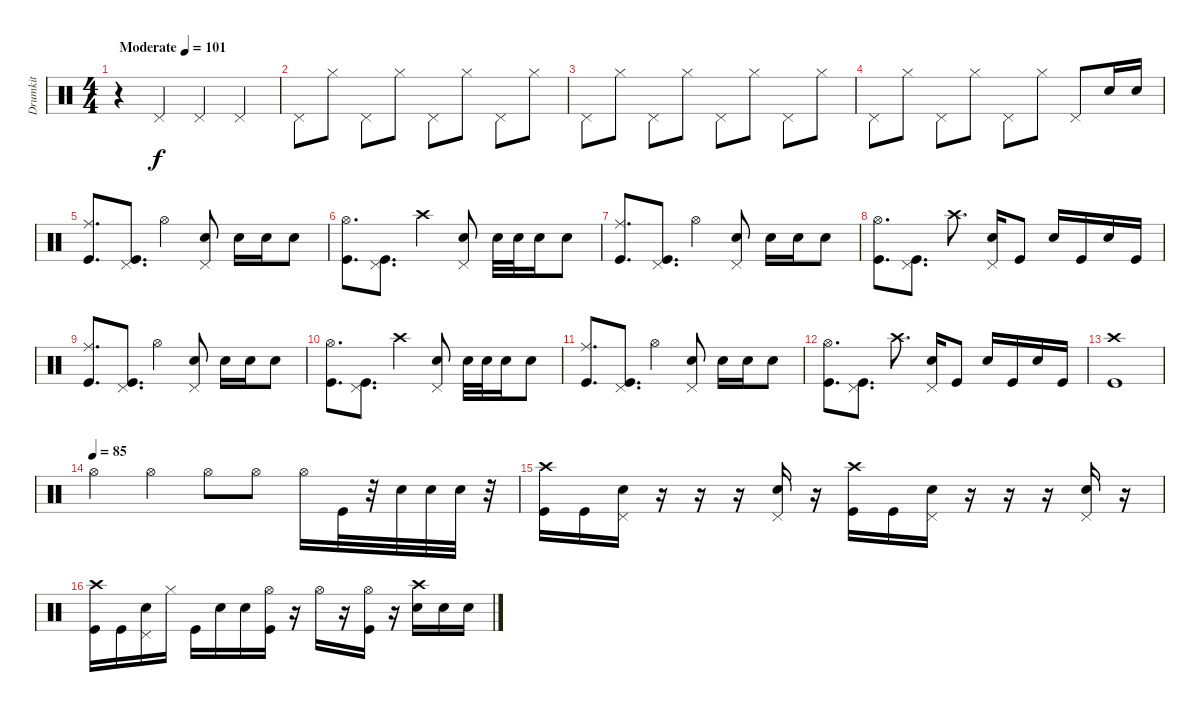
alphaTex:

\track ("Drumkit" "Drumkit") {instrument percussion}
\staff {score}
\articulation defaults
\ts (4 4)
\tempo (101 "Moderate")
\clef neutral
\ks c
r.4{dy f} "Pedal Hi-Hat (hit)".4 "Pedal Hi-Hat (hit)".4 "Pedal Hi-Hat (hit)".4 |
"Pedal Hi-Hat (hit)".8 "Hi-Hat (closed)".8 "Pedal Hi-Hat (hit)".8 "Hi-Hat (closed)".8 "Pedal Hi-Hat (hit)".8 "Hi-Hat (closed)".8 "Pedal Hi-Hat (hit)".8 "Hi-Hat (closed)".8 |
"Pedal Hi-Hat (hit)".8 "Hi-Hat (closed)".8 "Pedal Hi-Hat (hit)".8 "Hi-Hat (closed)".8 "Pedal Hi-Hat (hit)".8 "Hi-Hat (closed)".8 "Pedal Hi-Hat (hit)".8 "Hi-Hat (closed)".8 |
"Pedal Hi-Hat (hit)".8 "Hi-Hat (closed)".8 "Pedal Hi-Hat (hit)".8 "Hi-Hat (closed)".8 "Pedal Hi-Hat (hit)".8 "Hi-Hat (closed)".8 "Pedal Hi-Hat (hit)".8 "Snare (hit) 2".16 "Snare (hit) 2".16 |
("Kick (hit)" "Ride (middle)").8{d} ("Kick (hit)" "Pedal Hi-Hat (hit)").8{d} "Hi-Hat (open)".4 ("Snare (hit) 2" "Pedal Hi-Hat (hit)").8 "Snare (hit) 2".16 "Snare (hit) 2".16 "Snare (hit) 2".8 |
("Kick (hit)" "Hi-Hat (open)").8{d} ("Kick (hit)" "Pedal Hi-Hat (hit)").8{d} "Crash high (hit)".4 ("Snare (hit) 2" "Pedal Hi-Hat (hit)").8 "Snare (hit) 2".32 "Snare (hit) 2".32 "Snare (hit) 2".16 "Snare (hit) 2".8 |
("Kick (hit)" "Ride (middle)").8{d} ("Kick (hit)" "Pedal Hi-Hat (hit)").8{d} "Hi-Hat (open)".4 ("Snare (hit) 2" "Pedal Hi-Hat (hit)").8 "Snare (hit) 2".16 "Snare (hit) 2".16 "Snare (hit) 2".8 |
("Kick (hit)" "Hi-Hat (open)").8{d} ("Kick (hit)" "Pedal Hi-Hat (hit)").8{d} "Crash high (hit)".8{d} ("Snare (hit) 2" "Pedal Hi-Hat (hit)").16 "Kick (hit)".8 "Snare (hit) 2".16 "Kick (hit)".16 "Snare (hit) 2".16 "Kick (hit)".16 |
("Kick (hit)" "Ride (middle)").8{d} ("Kick (hit)" "Pedal Hi-Hat (hit)").8{d} "Hi-Hat (open)".4 ("Snare (hit) 2" "Pedal Hi-Hat (hit)").8 "Snare (hit) 2".16 "Snare (hit) 2".16 "Snare (hit) 2".8 |
("Kick (hit)" "Hi-Hat (open)").8{d} ("Kick (hit)" "Pedal Hi-Hat (hit)").8{d} "Crash high (hit)".4 ("Snare (hit) 2" "Pedal Hi-Hat (hit)").8 "Snare (hit) 2".32 "Snare (hit) 2".32 "Snare (hit) 2".16 "Snare (hit) 2".8 |
("Kick (hit)" "Ride (middle)").8{d} ("Kick (hit)" "Pedal Hi-Hat (hit)").8{d} "Hi-Hat (open)".4 ("Snare (hit) 2" "Pedal Hi-Hat (hit)").8 "Snare (hit) 2".16 "Snare (hit) 2".16 "Snare (hit) 2".8 |
("Kick (hit)" "Hi-Hat (open)").8{d} ("Kick (hit)" "Pedal Hi-Hat (hit)").8{d} "Crash high (hit)".8{d} ("Snare (hit) 2" "Pedal Hi-Hat (hit)").16 "Kick (hit)".8 "Snare (hit) 2".16 "Kick (hit)".16 "Snare (hit) 2".16 "Kick (hit)".16 |
("Kick (hit)" "Crash high (hit)").1 |
\tempo (85)
"Hi-Hat (open)".4 "Hi-Hat (open)".4 "Hi-Hat (open)".8 "Hi-Hat (open)".8 "Hi-Hat (open)".16 "Kick (hit)".32 r.32 "Snare (hit) 2".32 "Snare (hit) 2".32 "Snare (hit) 2".32 r.32 |
("Kick (hit)" "Crash high (hit)").16 "Kick (hit)".16 ("Snare (hit) 2" "Pedal Hi-Hat (hit)").16 r.16 r.16 r.16 ("Snare (hit) 2" "Pedal Hi-Hat (hit)").16 r.16 ("Kick (hit)" "Crash high (hit)").16 "Kick (hit)".16 ("Snare (hit) 2" "Pedal Hi-Hat (hit)").16 r.16 r.16 r.16 ("Snare (hit) 2" "Pedal Hi-Hat (hit)").16 r.16 |
("Kick (hit)" "Crash high (hit)").16 "Kick (hit)".16 ("Snare (hit) 2" "Pedal Hi-Hat (hit)").16 "Hi-Hat (closed)".16 "Kick (hit)".16 "Snare (hit) 2".16 "Snare (hit) 2".16 ("Kick (hit)" "Hi-Hat (open)").16 r.16 "Hi-Hat (open)".16 r.16 ("Kick (hit)" "Hi-Hat (open)").16 r.16 ("Crash high (hit)" "Snare (hit) 2").16 "Snare (hit) 2".16 "Snare (hit) 2".16
